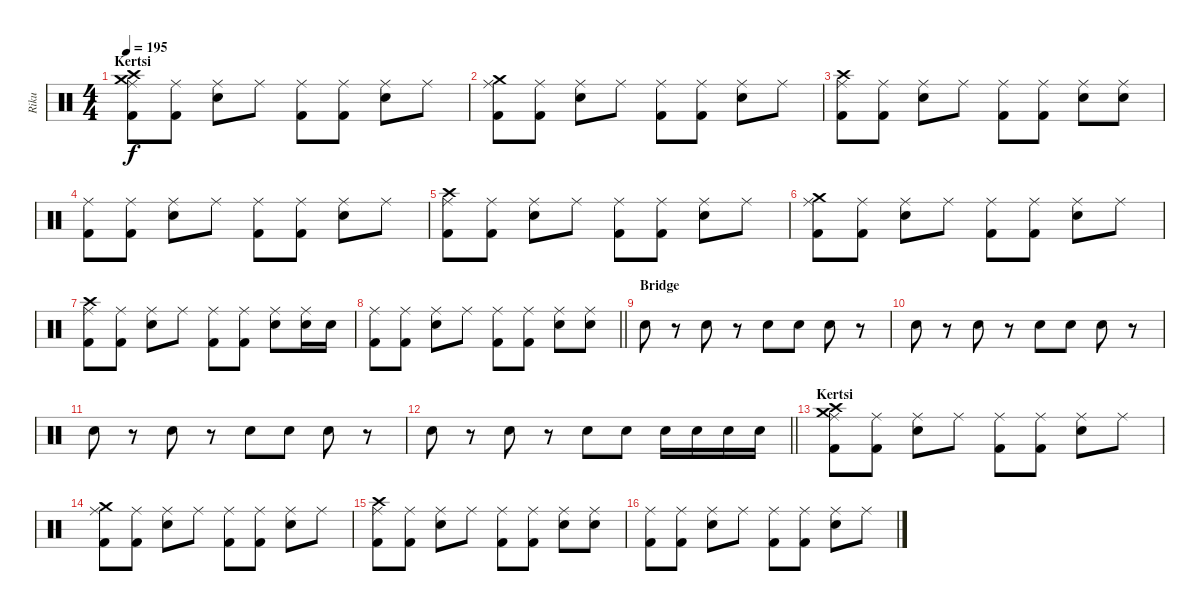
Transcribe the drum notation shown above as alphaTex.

\track ("Riku" "Riku") {instrument percussion}
\staff {score}
\articulation defaults
\ts (4 4)
\section ("" "Kertsi")
\tempo 195
\clef neutral
\ks c
("Crash medium (hit)" "Kick (hit) 2" "Crash high (hit)" "Ride (middle)").8{dy f} ("Kick (hit) 2" "Ride (middle)").8 ("Snare (hit) 2" "Ride (middle)").8 "Ride (middle)".8 ("Kick (hit) 2" "Ride (middle)").8 ("Kick (hit) 2" "Ride (middle)").8 ("Snare (hit) 2" "Ride (middle)").8 "Ride (middle)".8 |
("Kick (hit) 2" "Crash medium (hit)" "Ride (middle)").8 ("Kick (hit) 2" "Ride (middle)").8 ("Snare (hit) 2" "Ride (middle)").8 "Ride (middle)".8 ("Kick (hit) 2" "Ride (middle)").8 ("Kick (hit) 2" "Ride (middle)").8 ("Snare (hit) 2" "Ride (middle)").8 "Ride (middle)".8 |
("Kick (hit) 2" "Crash high (hit)" "Ride (middle)").8 ("Kick (hit) 2" "Ride (middle)").8 ("Snare (hit) 2" "Ride (middle)").8 "Ride (middle)".8 ("Kick (hit) 2" "Ride (middle)").8 ("Kick (hit) 2" "Ride (middle)").8 ("Snare (hit) 2" "Ride (middle)").8 ("Snare (hit) 2" "Ride (middle)").8 |
("Kick (hit) 2" "Ride (middle)").8 ("Kick (hit) 2" "Ride (middle)").8 ("Snare (hit) 2" "Ride (middle)").8 "Ride (middle)".8 ("Kick (hit) 2" "Ride (middle)").8 ("Kick (hit) 2" "Ride (middle)").8 ("Snare (hit) 2" "Ride (middle)").8 "Ride (middle)".8 |
("Kick (hit) 2" "Crash high (hit)" "Ride (middle)").8 ("Kick (hit) 2" "Ride (middle)").8 ("Snare (hit) 2" "Ride (middle)").8 "Ride (middle)".8 ("Kick (hit) 2" "Ride (middle)").8 ("Kick (hit) 2" "Ride (middle)").8 ("Snare (hit) 2" "Ride (middle)").8 "Ride (middle)".8 |
("Kick (hit) 2" "Crash medium (hit)" "Ride (middle)").8 ("Kick (hit) 2" "Ride (middle)").8 ("Snare (hit) 2" "Ride (middle)").8 "Ride (middle)".8 ("Kick (hit) 2" "Ride (middle)").8 ("Kick (hit) 2" "Ride (middle)").8 ("Snare (hit) 2" "Ride (middle)").8 "Ride (middle)".8 |
("Kick (hit) 2" "Crash high (hit)" "Ride (middle)").8 ("Kick (hit) 2" "Ride (middle)").8 ("Snare (hit) 2" "Ride (middle)").8 "Ride (middle)".8 ("Kick (hit) 2" "Ride (middle)").8 ("Kick (hit) 2" "Ride (middle)").8 ("Snare (hit) 2" "Ride (middle)").8 ("Snare (hit) 2" "Ride (middle)").16 "Snare (hit) 2".16 |
\barLineRight lightlight
("Kick (hit) 2" "Ride (middle)").8 ("Kick (hit) 2" "Ride (middle)").8 ("Snare (hit) 2" "Ride (middle)").8 "Ride (middle)".8 ("Kick (hit) 2" "Ride (middle)").8 ("Kick (hit) 2" "Ride (middle)").8 ("Snare (hit) 2" "Ride (middle)").8 ("Snare (hit) 2" "Ride (middle)").8 |
\section ("" "Bridge")
"Snare (hit) 2".8 r.8 "Snare (hit) 2".8 r.8 "Snare (hit) 2".8 "Snare (hit) 2".8 "Snare (hit) 2".8 r.8 |
"Snare (hit) 2".8 r.8 "Snare (hit) 2".8 r.8 "Snare (hit) 2".8 "Snare (hit) 2".8 "Snare (hit) 2".8 r.8 |
"Snare (hit) 2".8 r.8 "Snare (hit) 2".8 r.8 "Snare (hit) 2".8 "Snare (hit) 2".8 "Snare (hit) 2".8 r.8 |
\barLineRight lightlight "Snare (hit) 2".8
r.8 "Snare (hit) 2".8 r.8 "Snare (hit) 2".8 "Snare (hit) 2".8 "Snare (hit) 2".16 "Snare (hit) 2".16 "Snare (hit) 2".16 "Snare (hit) 2".16 |
\section ("" "Kertsi")
("Crash medium (hit)" "Kick (hit) 2" "Crash high (hit)" "Ride (middle)").8 ("Kick (hit) 2" "Ride (middle)").8 ("Snare (hit) 2" "Ride (middle)").8 "Ride (middle)".8 ("Kick (hit) 2" "Ride (middle)").8 ("Kick (hit) 2" "Ride (middle)").8 ("Snare (hit) 2" "Ride (middle)").8 "Ride (middle)".8 |
("Kick (hit) 2" "Crash medium (hit)" "Ride (middle)").8 ("Kick (hit) 2" "Ride (middle)").8 ("Snare (hit) 2" "Ride (middle)").8 "Ride (middle)".8 ("Kick (hit) 2" "Ride (middle)").8 ("Kick (hit) 2" "Ride (middle)").8 ("Snare (hit) 2" "Ride (middle)").8 "Ride (middle)".8 |
("Kick (hit) 2" "Crash high (hit)" "Ride (middle)").8 ("Kick (hit) 2" "Ride (middle)").8 ("Snare (hit) 2" "Ride (middle)").8 "Ride (middle)".8 ("Kick (hit) 2" "Ride (middle)").8 ("Kick (hit) 2" "Ride (middle)").8 ("Snare (hit) 2" "Ride (middle)").8 ("Snare (hit) 2" "Ride (middle)").8 |
("Kick (hit) 2" "Ride (middle)").8 ("Kick (hit) 2" "Ride (middle)").8 ("Snare (hit) 2" "Ride (middle)").8 "Ride (middle)".8 ("Kick (hit) 2" "Ride (middle)").8 ("Kick (hit) 2" "Ride (middle)").8 ("Snare (hit) 2" "Ride (middle)").8 "Ride (middle)".8
